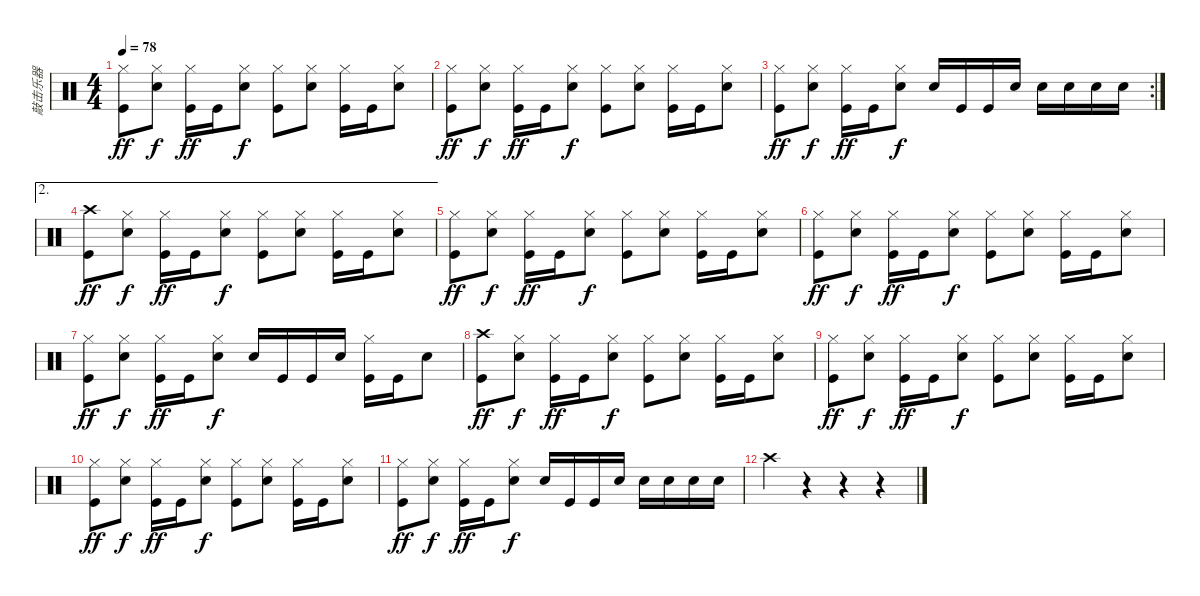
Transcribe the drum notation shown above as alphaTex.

\track ("敲击乐器" "敲击乐器") {instrument percussion}
\staff {score}
\articulation defaults
\ts (4 4)
\tempo 78
\clef neutral
\ks c
("Hi-Hat (closed)" "Kick (hit)").8{dy ff} ("Electric Snare (hit)" "Hi-Hat (closed)").8{dy f} ("Hi-Hat (closed)" "Kick (hit)").16{dy ff} "Kick (hit)".16 ("Hi-Hat (closed)" "Electric Snare (hit)").8{dy f} ("Hi-Hat (closed)" "Kick (hit)").8 ("Hi-Hat (closed)" "Electric Snare (hit)").8 ("Hi-Hat (closed)" "Kick (hit)").16 "Kick (hit)".16 ("Electric Snare (hit)" "Hi-Hat (closed)").8 |
("Hi-Hat (closed)" "Kick (hit)").8{dy ff} ("Electric Snare (hit)" "Hi-Hat (closed)").8{dy f} ("Hi-Hat (closed)" "Kick (hit)").16{dy ff} "Kick (hit)".16 ("Hi-Hat (closed)" "Electric Snare (hit)").8{dy f} ("Hi-Hat (closed)" "Kick (hit)").8 ("Hi-Hat (closed)" "Electric Snare (hit)").8 ("Hi-Hat (closed)" "Kick (hit)").16 "Kick (hit)".16 ("Electric Snare (hit)" "Hi-Hat (closed)").8 |
\rc 2
("Hi-Hat (closed)" "Kick (hit)").8{dy ff} ("Electric Snare (hit)" "Hi-Hat (closed)").8{dy f} ("Hi-Hat (closed)" "Kick (hit)").16{dy ff} "Kick (hit)".16 ("Hi-Hat (closed)" "Electric Snare (hit)").8{dy f} "Electric Snare (hit)".16 "Kick (hit)".16 "Kick (hit)".16 "Electric Snare (hit)".16 "Electric Snare (hit)".16 "Electric Snare (hit)".16 "Electric Snare (hit)".16 "Electric Snare (hit)".16 |
\ae 2
("Crash high (hit)" "Kick (hit)").8{dy ff} ("Electric Snare (hit)" "Hi-Hat (closed)").8{dy f} ("Hi-Hat (closed)" "Kick (hit)").16{dy ff} "Kick (hit)".16 ("Hi-Hat (closed)" "Electric Snare (hit)").8{dy f} ("Hi-Hat (closed)" "Kick (hit)").8 ("Hi-Hat (closed)" "Electric Snare (hit)").8 ("Hi-Hat (closed)" "Kick (hit)").16 "Kick (hit)".16 ("Electric Snare (hit)" "Hi-Hat (closed)").8 |
("Hi-Hat (closed)" "Kick (hit)").8{dy ff} ("Electric Snare (hit)" "Hi-Hat (closed)").8{dy f} ("Hi-Hat (closed)" "Kick (hit)").16{dy ff} "Kick (hit)".16 ("Hi-Hat (closed)" "Electric Snare (hit)").8{dy f} ("Hi-Hat (closed)" "Kick (hit)").8 ("Hi-Hat (closed)" "Electric Snare (hit)").8 ("Hi-Hat (closed)" "Kick (hit)").16 "Kick (hit)".16 ("Electric Snare (hit)" "Hi-Hat (closed)").8 |
("Hi-Hat (closed)" "Kick (hit)").8{dy ff} ("Electric Snare (hit)" "Hi-Hat (closed)").8{dy f} ("Hi-Hat (closed)" "Kick (hit)").16{dy ff} "Kick (hit)".16 ("Hi-Hat (closed)" "Electric Snare (hit)").8{dy f} ("Hi-Hat (closed)" "Kick (hit)").8 ("Hi-Hat (closed)" "Electric Snare (hit)").8 ("Hi-Hat (closed)" "Kick (hit)").16 "Kick (hit)".16 ("Electric Snare (hit)" "Hi-Hat (closed)").8 |
("Hi-Hat (closed)" "Kick (hit)").8{dy ff} ("Electric Snare (hit)" "Hi-Hat (closed)").8{dy f} ("Hi-Hat (closed)" "Kick (hit)").16{dy ff} "Kick (hit)".16 ("Hi-Hat (closed)" "Electric Snare (hit)").8{dy f} "Electric Snare (hit)".16 "Kick (hit)".16 "Kick (hit)".16 "Electric Snare (hit)".16 ("Hi-Hat (closed)" "Kick (hit)").16 "Kick (hit)".16 "Electric Snare (hit)".8 |
("Crash high (hit)" "Kick (hit)").8{dy ff} ("Electric Snare (hit)" "Hi-Hat (closed)").8{dy f} ("Hi-Hat (closed)" "Kick (hit)").16{dy ff} "Kick (hit)".16 ("Hi-Hat (closed)" "Electric Snare (hit)").8{dy f} ("Hi-Hat (closed)" "Kick (hit)").8 ("Hi-Hat (closed)" "Electric Snare (hit)").8 ("Hi-Hat (closed)" "Kick (hit)").16 "Kick (hit)".16 ("Electric Snare (hit)" "Hi-Hat (closed)").8 |
("Hi-Hat (closed)" "Kick (hit)").8{dy ff} ("Electric Snare (hit)" "Hi-Hat (closed)").8{dy f} ("Hi-Hat (closed)" "Kick (hit)").16{dy ff} "Kick (hit)".16 ("Hi-Hat (closed)" "Electric Snare (hit)").8{dy f} ("Hi-Hat (closed)" "Kick (hit)").8 ("Hi-Hat (closed)" "Electric Snare (hit)").8 ("Hi-Hat (closed)" "Kick (hit)").16 "Kick (hit)".16 ("Electric Snare (hit)" "Hi-Hat (closed)").8 |
("Hi-Hat (closed)" "Kick (hit)").8{dy ff} ("Electric Snare (hit)" "Hi-Hat (closed)").8{dy f} ("Hi-Hat (closed)" "Kick (hit)").16{dy ff} "Kick (hit)".16 ("Hi-Hat (closed)" "Electric Snare (hit)").8{dy f} ("Hi-Hat (closed)" "Kick (hit)").8 ("Hi-Hat (closed)" "Electric Snare (hit)").8 ("Hi-Hat (closed)" "Kick (hit)").16 "Kick (hit)".16 ("Electric Snare (hit)" "Hi-Hat (closed)").8 |
("Hi-Hat (closed)" "Kick (hit)").8{dy ff} ("Electric Snare (hit)" "Hi-Hat (closed)").8{dy f} ("Hi-Hat (closed)" "Kick (hit)").16{dy ff} "Kick (hit)".16 ("Hi-Hat (closed)" "Electric Snare (hit)").8{dy f} "Electric Snare (hit)".16 "Kick (hit)".16 "Kick (hit)".16 "Electric Snare (hit)".16 "Electric Snare (hit)".16 "Electric Snare (hit)".16 "Electric Snare (hit)".16 "Electric Snare (hit)".16 |
"Crash high (hit)".4 r.4 r.4 r.4
